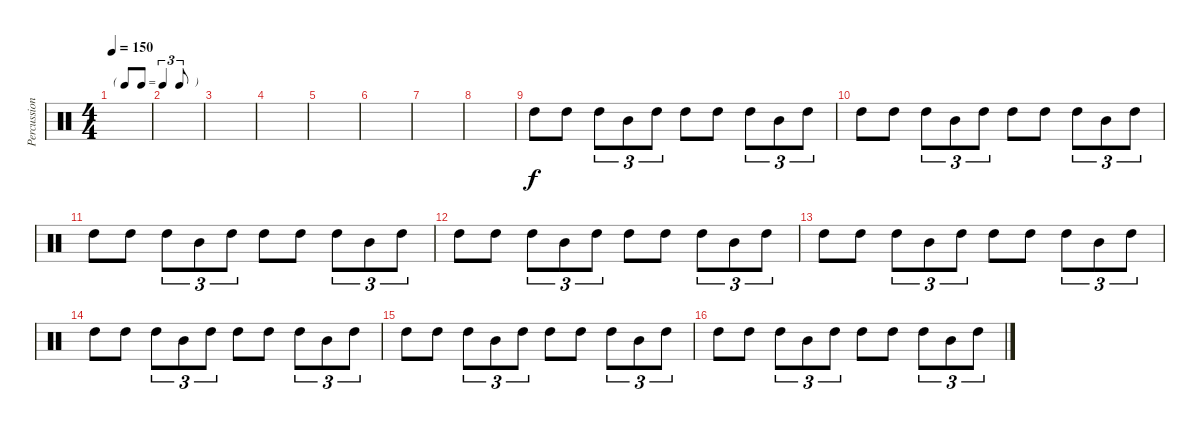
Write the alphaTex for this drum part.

\track ("Percussion" "Percussion") {instrument percussion}
\staff {score}
\articulation defaults
\ts (4 4)
\tf triplet8th
\tempo 150
\clef neutral
\ks c
|
|
|
|
|
|
|
|
"High Tom (hit)".8 "High Tom (hit)".8 "High Tom (hit)".8{tu (3 2)} "Mid Tom (hit)".8{tu (3 2)} "High Tom (hit)".8{tu (3 2)} "High Tom (hit)".8 "High Tom (hit)".8 "High Tom (hit)".8{tu (3 2)} "Mid Tom (hit)".8{tu (3 2)} "High Tom (hit)".8{tu (3 2)} |
"High Tom (hit)".8 "High Tom (hit)".8 "High Tom (hit)".8{tu (3 2)} "Mid Tom (hit)".8{tu (3 2)} "High Tom (hit)".8{tu (3 2)} "High Tom (hit)".8 "High Tom (hit)".8 "High Tom (hit)".8{tu (3 2)} "Mid Tom (hit)".8{tu (3 2)} "High Tom (hit)".8{tu (3 2)} |
"High Tom (hit)".8 "High Tom (hit)".8 "High Tom (hit)".8{tu (3 2)} "Mid Tom (hit)".8{tu (3 2)} "High Tom (hit)".8{tu (3 2)} "High Tom (hit)".8 "High Tom (hit)".8 "High Tom (hit)".8{tu (3 2)} "Mid Tom (hit)".8{tu (3 2)} "High Tom (hit)".8{tu (3 2)} |
"High Tom (hit)".8 "High Tom (hit)".8 "High Tom (hit)".8{tu (3 2)} "Mid Tom (hit)".8{tu (3 2)} "High Tom (hit)".8{tu (3 2)} "High Tom (hit)".8 "High Tom (hit)".8 "High Tom (hit)".8{tu (3 2)} "Mid Tom (hit)".8{tu (3 2)} "High Tom (hit)".8{tu (3 2)} |
"High Tom (hit)".8 "High Tom (hit)".8 "High Tom (hit)".8{tu (3 2)} "Mid Tom (hit)".8{tu (3 2)} "High Tom (hit)".8{tu (3 2)} "High Tom (hit)".8 "High Tom (hit)".8 "High Tom (hit)".8{tu (3 2)} "Mid Tom (hit)".8{tu (3 2)} "High Tom (hit)".8{tu (3 2)} |
"High Tom (hit)".8 "High Tom (hit)".8 "High Tom (hit)".8{tu (3 2)} "Mid Tom (hit)".8{tu (3 2)} "High Tom (hit)".8{tu (3 2)} "High Tom (hit)".8 "High Tom (hit)".8 "High Tom (hit)".8{tu (3 2)} "Mid Tom (hit)".8{tu (3 2)} "High Tom (hit)".8{tu (3 2)} |
"High Tom (hit)".8 "High Tom (hit)".8 "High Tom (hit)".8{tu (3 2)} "Mid Tom (hit)".8{tu (3 2)} "High Tom (hit)".8{tu (3 2)} "High Tom (hit)".8 "High Tom (hit)".8 "High Tom (hit)".8{tu (3 2)} "Mid Tom (hit)".8{tu (3 2)} "High Tom (hit)".8{tu (3 2)} |
"High Tom (hit)".8 "High Tom (hit)".8 "High Tom (hit)".8{tu (3 2)} "Mid Tom (hit)".8{tu (3 2)} "High Tom (hit)".8{tu (3 2)} "High Tom (hit)".8 "High Tom (hit)".8 "High Tom (hit)".8{tu (3 2)} "Mid Tom (hit)".8{tu (3 2)} "High Tom (hit)".8{tu (3 2)}
